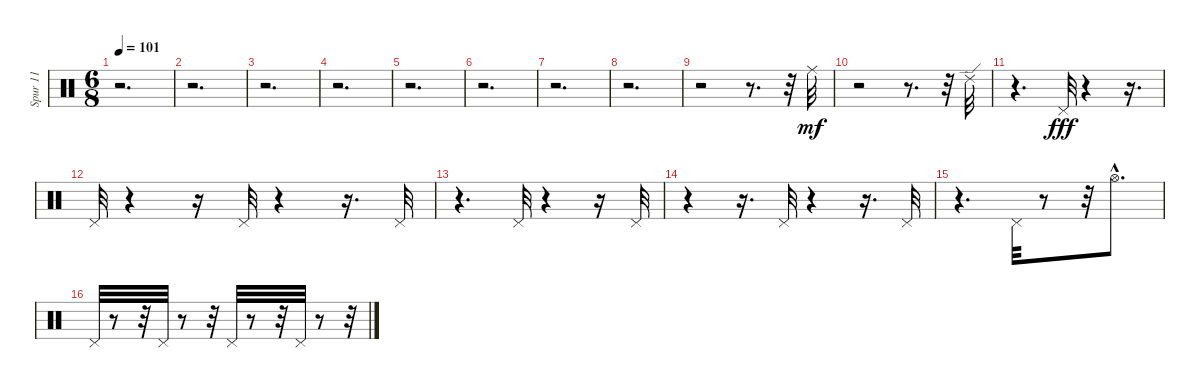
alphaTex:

\track ("Spur 11" "Spur 11") {instrument percussion}
\staff {score}
\articulation defaults
\ts (6 8)
\tempo 101
\clef neutral
\ks c
r.2{d dy ff} |
r.2{d} |
r.2{d} |
r.2{d} |
r.2{d} |
r.2{d} |
r.2{d} |
r.2{d} |
r.2 r.8{d} r.32 "Ride (middle)".32{dy mf} |
r.2 r.8{d} r.32 "Ride (edge) 2".32 |
r.4{d} "Pedal Hi-Hat (hit)".32{dy fff} r.4 r.16{d} |
"Pedal Hi-Hat (hit)".32 r.4 r.16 "Pedal Hi-Hat (hit)".32 r.4 r.16{d} "Pedal Hi-Hat (hit)".32 |
r.4{d} "Pedal Hi-Hat (hit)".32 r.4 r.16 "Pedal Hi-Hat (hit)".32 |
r.4 r.16{d} "Pedal Hi-Hat (hit)".32 r.4 r.16{d} "Pedal Hi-Hat (hit)".32 |
r.4{d} "Pedal Hi-Hat (hit)".32 r.8 r.32 "Hi-Hat (open)"{hac}.8{d} |
"Pedal Hi-Hat (hit)".32 r.8 r.32 "Pedal Hi-Hat (hit)".32 r.8 r.32 "Pedal Hi-Hat (hit)".32 r.8 r.32 "Pedal Hi-Hat (hit)".32 r.8 r.32
